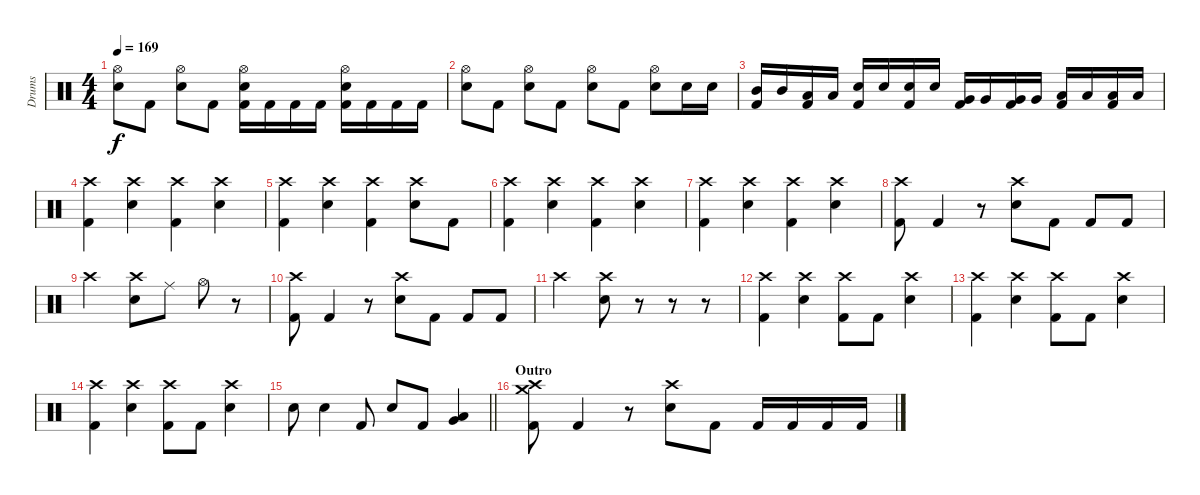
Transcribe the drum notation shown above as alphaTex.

\track ("Drums" "Drums") {instrument percussion}
\staff {score}
\articulation defaults
\ts (4 4)
\tempo 169
\clef neutral
\ks c
("Hi-Hat (open)" "Electric Snare (hit)").8{dy f} "Kick (hit) 2".8 ("Hi-Hat (open)" "Electric Snare (hit)").8 "Kick (hit) 2".8 ("Hi-Hat (open)" "Electric Snare (hit)" "Kick (hit) 2").16 "Kick (hit) 2".16 "Kick (hit) 2".16 "Kick (hit) 2".16 ("Hi-Hat (open)" "Electric Snare (hit)" "Kick (hit) 2").16 "Kick (hit) 2".16 "Kick (hit) 2".16 "Kick (hit) 2".16 |
("Hi-Hat (open)" "Electric Snare (hit)").8 "Kick (hit) 2".8 ("Hi-Hat (open)" "Electric Snare (hit)").8 "Kick (hit) 2".8 ("Hi-Hat (open)" "Electric Snare (hit)").8 "Kick (hit) 2".8 ("Hi-Hat (open)" "Electric Snare (hit)").8 "Electric Snare (hit)".16 "Electric Snare (hit)".16 |
("Mid Tom (hit)" "Kick (hit) 2").16 "Mid Tom (hit)".16 ("Low Tom (hit)" "Kick (hit) 2").16 "Low Tom (hit)".16 ("Electric Snare (hit)" "Kick (hit) 2").16 "Electric Snare (hit)".16 ("Electric Snare (hit)" "Kick (hit) 2").16 "Electric Snare (hit)".16 ("Very Low Tom (hit)" "Kick (hit) 2").16 "Very Low Tom (hit)".16 ("Very Low Tom (hit)" "Kick (hit) 2").16 "Very Low Tom (hit)".16 ("Low Floor Tom (hit)" "Kick (hit) 2").16 "Low Floor Tom (hit)".16 ("Low Floor Tom (hit)" "Kick (hit) 2").16 "Low Floor Tom (hit)".16 |
("Crash high (hit)" "Kick (hit) 2").4 ("Crash high (hit)" "Electric Snare (hit)").4 ("Crash high (hit)" "Kick (hit) 2").4 ("Crash high (hit)" "Electric Snare (hit)").4 |
("Crash high (hit)" "Kick (hit) 2").4 ("Crash high (hit)" "Electric Snare (hit)").4 ("Crash high (hit)" "Kick (hit) 2").4 ("Crash high (hit)" "Electric Snare (hit)").8 "Kick (hit) 2".8 |
("Crash high (hit)" "Kick (hit) 2").4 ("Crash high (hit)" "Electric Snare (hit)").4 ("Crash high (hit)" "Kick (hit) 2").4 ("Crash high (hit)" "Electric Snare (hit)").4 |
("Crash high (hit)" "Kick (hit) 2").4 ("Crash high (hit)" "Electric Snare (hit)").4 ("Crash high (hit)" "Kick (hit) 2").4 ("Crash high (hit)" "Electric Snare (hit)").4 |
("Crash high (hit)" "Kick (hit) 2").8 "Kick (hit) 2".4 r.8 ("Crash high (hit)" "Electric Snare (hit)").8 "Kick (hit) 2".8 "Kick (hit) 2".8 "Kick (hit) 2".8 |
"Crash high (hit)".2 ("Crash high (hit)" "Electric Snare (hit)").8 "Ride (middle)".8 "Hi-Hat (open)".8 r.8 |
("Crash high (hit)" "Kick (hit) 2").8 "Kick (hit) 2".4 r.8 ("Crash high (hit)" "Electric Snare (hit)").8 "Kick (hit) 2".8 "Kick (hit) 2".8 "Kick (hit) 2".8 |
"Crash high (hit)".2 ("Crash high (hit)" "Electric Snare (hit)").8 r.8 r.8 r.8 |
("Crash high (hit)" "Kick (hit) 2").4 ("Crash high (hit)" "Electric Snare (hit)").4 ("Crash high (hit)" "Kick (hit) 2").8 "Kick (hit) 2".8 ("Crash high (hit)" "Electric Snare (hit)").4 |
("Crash high (hit)" "Kick (hit) 2").4 ("Crash high (hit)" "Electric Snare (hit)").4 ("Crash high (hit)" "Kick (hit) 2").8 "Kick (hit) 2".8 ("Crash high (hit)" "Electric Snare (hit)").4 |
("Crash high (hit)" "Kick (hit) 2").4 ("Crash high (hit)" "Electric Snare (hit)").4 ("Crash high (hit)" "Kick (hit) 2").8 "Kick (hit) 2".8 ("Crash high (hit)" "Electric Snare (hit)").4 |
\barLineRight lightlight "Electric Snare (hit)".8 "Electric Snare (hit)".4 "Kick (hit) 2".8 "Electric Snare (hit)".8 "Kick (hit) 2".8
("Low Floor Tom (hit)" "Very Low Tom (hit)").4 |
\section ("" "Outro")
("Crash high (hit)" "Crash medium (hit)" "Kick (hit) 2").8 "Kick (hit) 2".4 r.8 ("Crash high (hit)" "Electric Snare (hit)").8 "Kick (hit) 2".8 "Kick (hit) 2".16 "Kick (hit) 2".16 "Kick (hit) 2".16 "Kick (hit) 2".16
